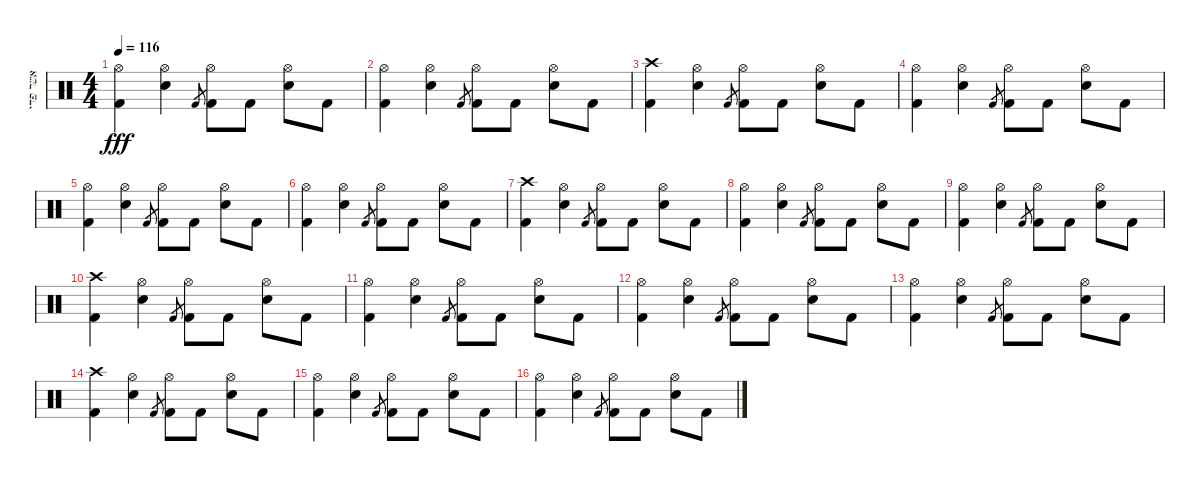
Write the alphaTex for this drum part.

\track ("אשר פדי" "אשר פדי") {instrument percussion}
\staff {score}
\articulation defaults
\ts (4 4)
\tempo 116
\clef neutral
\ks c
("Hi-Hat (open)" "Kick (hit) 2").4{dy fff} ("Hi-Hat (open)" "Snare (hit) 2").4 "Kick (hit) 2".8{gr} ("Hi-Hat (open)" "Kick (hit) 2").8 "Kick (hit) 2".8 ("Hi-Hat (open)" "Electric Snare (hit)").8 "Kick (hit) 2".8 |
("Hi-Hat (open)" "Kick (hit) 2").4 ("Hi-Hat (open)" "Electric Snare (hit)").4 "Kick (hit) 2".8{gr} ("Hi-Hat (open)" "Kick (hit) 2").8 "Kick (hit) 2".8 ("Hi-Hat (open)" "Electric Snare (hit)").8 "Kick (hit) 2".8 |
("Crash high (hit)" "Kick (hit) 2").4 ("Hi-Hat (open)" "Electric Snare (hit)").4 "Kick (hit) 2".8{gr} ("Hi-Hat (open)" "Kick (hit) 2").8 "Kick (hit) 2".8 ("Hi-Hat (open)" "Snare (hit) 2").8 "Kick (hit) 2".8 |
("Hi-Hat (open)" "Kick (hit) 2").4 ("Hi-Hat (open)" "Snare (hit) 2").4 "Kick (hit) 2".8{gr} ("Hi-Hat (open)" "Kick (hit) 2").8 "Kick (hit) 2".8 ("Hi-Hat (open)" "Electric Snare (hit)").8 "Kick (hit) 2".8 |
("Hi-Hat (open)" "Kick (hit) 2").4 ("Hi-Hat (open)" "Electric Snare (hit)").4 "Kick (hit) 2".8{gr} ("Hi-Hat (open)" "Kick (hit) 2").8 "Kick (hit) 2".8 ("Hi-Hat (open)" "Electric Snare (hit)").8 "Kick (hit) 2".8 |
("Hi-Hat (open)" "Kick (hit) 2").4 ("Hi-Hat (open)" "Electric Snare (hit)").4 "Kick (hit) 2".8{gr} ("Hi-Hat (open)" "Kick (hit) 2").8 "Kick (hit) 2".8 ("Hi-Hat (open)" "Electric Snare (hit)").8 "Kick (hit) 2".8 |
("Crash high (hit)" "Kick (hit) 2").4 ("Hi-Hat (open)" "Electric Snare (hit)").4 "Kick (hit) 2".8{gr} ("Hi-Hat (open)" "Kick (hit) 2").8 "Kick (hit) 2".8 ("Hi-Hat (open)" "Snare (hit) 2").8 "Kick (hit) 2".8 |
("Hi-Hat (open)" "Kick (hit) 2").4 ("Hi-Hat (open)" "Snare (hit) 2").4 "Kick (hit) 2".8{gr} ("Hi-Hat (open)" "Kick (hit) 2").8 "Kick (hit) 2".8 ("Hi-Hat (open)" "Electric Snare (hit)").8 "Kick (hit) 2".8 |
("Hi-Hat (open)" "Kick (hit) 2").4 ("Hi-Hat (open)" "Electric Snare (hit)").4 "Kick (hit) 2".8{gr} ("Hi-Hat (open)" "Kick (hit) 2").8 "Kick (hit) 2".8 ("Hi-Hat (open)" "Electric Snare (hit)").8 "Kick (hit) 2".8 |
("Crash high (hit)" "Kick (hit) 2").4 ("Hi-Hat (open)" "Electric Snare (hit)").4 "Kick (hit) 2".8{gr} ("Hi-Hat (open)" "Kick (hit) 2").8 "Kick (hit) 2".8 ("Hi-Hat (open)" "Snare (hit) 2").8 "Kick (hit) 2".8 |
("Hi-Hat (open)" "Kick (hit) 2").4 ("Hi-Hat (open)" "Snare (hit) 2").4 "Kick (hit) 2".8{gr} ("Hi-Hat (open)" "Kick (hit) 2").8 "Kick (hit) 2".8 ("Hi-Hat (open)" "Electric Snare (hit)").8 "Kick (hit) 2".8 |
("Hi-Hat (open)" "Kick (hit) 2").4 ("Hi-Hat (open)" "Electric Snare (hit)").4 "Kick (hit) 2".8{gr} ("Hi-Hat (open)" "Kick (hit) 2").8 "Kick (hit) 2".8 ("Hi-Hat (open)" "Electric Snare (hit)").8 "Kick (hit) 2".8 |
("Hi-Hat (open)" "Kick (hit) 2").4 ("Hi-Hat (open)" "Electric Snare (hit)").4 "Kick (hit) 2".8{gr} ("Hi-Hat (open)" "Kick (hit) 2").8 "Kick (hit) 2".8 ("Hi-Hat (open)" "Electric Snare (hit)").8 "Kick (hit) 2".8 |
("Crash high (hit)" "Kick (hit) 2").4 ("Hi-Hat (open)" "Electric Snare (hit)").4 "Kick (hit) 2".8{gr} ("Hi-Hat (open)" "Kick (hit) 2").8 "Kick (hit) 2".8 ("Hi-Hat (open)" "Snare (hit) 2").8 "Kick (hit) 2".8 |
("Hi-Hat (open)" "Kick (hit) 2").4 ("Hi-Hat (open)" "Snare (hit) 2").4 "Kick (hit) 2".8{gr} ("Hi-Hat (open)" "Kick (hit) 2").8 "Kick (hit) 2".8 ("Hi-Hat (open)" "Electric Snare (hit)").8 "Kick (hit) 2".8 |
("Hi-Hat (open)" "Kick (hit) 2").4 ("Hi-Hat (open)" "Electric Snare (hit)").4 "Kick (hit) 2".8{gr} ("Hi-Hat (open)" "Kick (hit) 2").8 "Kick (hit) 2".8 ("Hi-Hat (open)" "Electric Snare (hit)").8 "Kick (hit) 2".8
